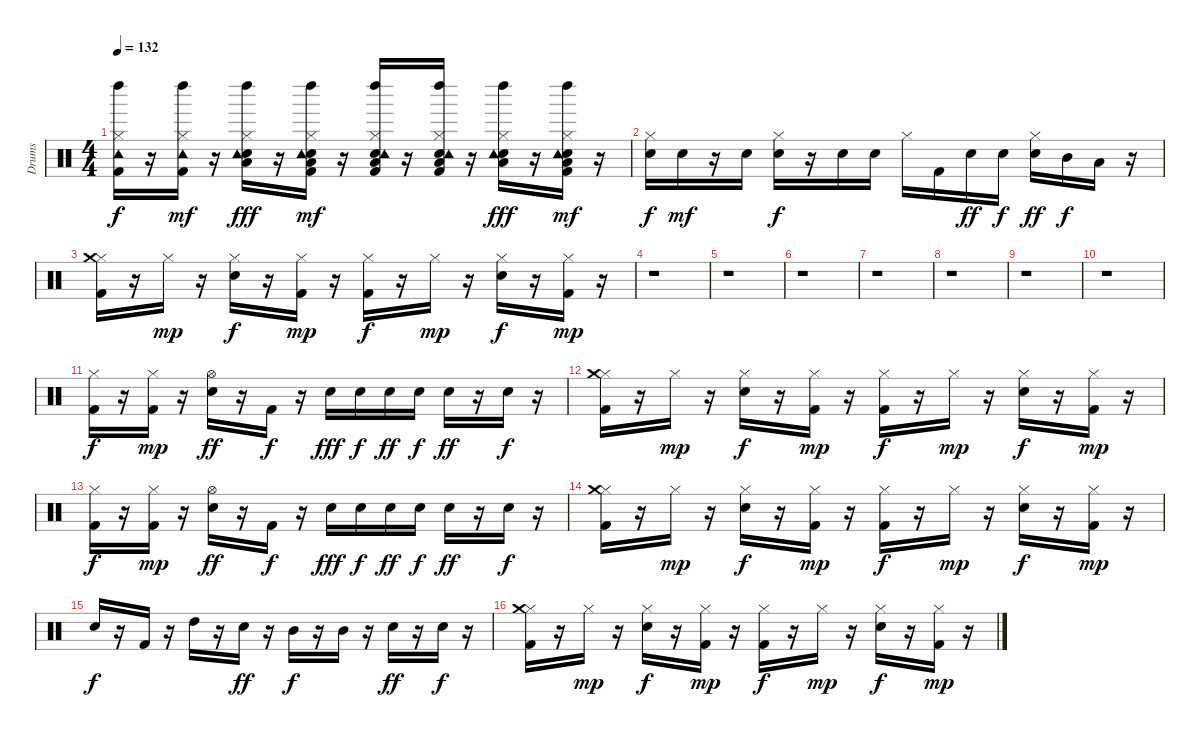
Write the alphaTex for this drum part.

\track ("Drums" "Drums") {instrument percussion}
\staff {score}
\articulation defaults
\ts (4 4)
\tempo 132
\clef neutral
\ks c
("Kick (hit) 2" "Hi-Hat (closed)" "Tambourine (hit)" "Left Maraca (hit)").16{dy f} r.16 ("Kick (hit) 2" "Hi-Hat (closed)" "Tambourine (hit)" "Left Maraca (hit)").16{dy mf} r.16 ("Snare (hit) 2" "Hi-Hat (closed)" "Low Floor Tom (hit)" "Tambourine (hit)" "Left Maraca (hit)").16{dy fff} r.16 ("Kick (hit) 2" "Snare (hit) 2" "Hi-Hat (closed)" "Low Floor Tom (hit)" "Tambourine (hit)" "Left Maraca (hit)").16{dy mf} r.16 ("Kick (hit) 2" "Snare (hit) 2" "Hi-Hat (closed)" "Low Floor Tom (hit)" "Tambourine (hit)" "Left Maraca (hit)").16 r.16 ("Kick (hit) 2" "Snare (hit) 2" "Hi-Hat (closed)" "Low Floor Tom (hit)" "Tambourine (hit)" "Left Maraca (hit)").16 r.16 ("Snare (hit) 2" "Hi-Hat (closed)" "Low Floor Tom (hit)" "Tambourine (hit)" "Left Maraca (hit)").16{dy fff} r.16 ("Kick (hit) 2" "Snare (hit) 2" "Hi-Hat (closed)" "Low Floor Tom (hit)" "Tambourine (hit)" "Left Maraca (hit)").16{dy mf} r.16 |
("Snare (hit) 2" "Hi-Hat (closed)").16{dy f} "Snare (hit) 2".16{dy mf} r.16 "Snare (hit) 2".16 ("Snare (hit) 2" "Hi-Hat (closed)").16{dy f} r.16 "Snare (hit) 2".16 "Snare (hit) 2".16 "Hi-Hat (closed)".16 "Kick (hit) 2".16 "Snare (hit) 2".16{dy ff} "Snare (hit) 2".16{dy f} ("Snare (hit) 2" "Hi-Hat (closed)").16{dy ff} "Mid Tom (hit)".16{dy f} "Low Floor Tom (hit)".16 r.16 |
("Kick (hit) 2" "Hi-Hat (closed)" "Crash medium (hit)").16 r.16 "Hi-Hat (closed)".16{dy mp} r.16 ("Snare (hit) 2" "Hi-Hat (closed)").16{dy f} r.16 ("Kick (hit) 2" "Hi-Hat (closed)").16{dy mp} r.16 ("Kick (hit) 2" "Hi-Hat (closed)").16{dy f} r.16 "Hi-Hat (closed)".16{dy mp} r.16 ("Snare (hit) 2" "Hi-Hat (closed)").16{dy f} r.16 ("Kick (hit) 2" "Hi-Hat (closed)").16{dy mp} r.16 |
r.1 |
r.1 |
r.1 |
r.1 |
r.1 |
r.1 |
r.1 |
("Kick (hit) 2" "Hi-Hat (closed)").16{dy f} r.16 ("Kick (hit) 2" "Hi-Hat (closed)").16{dy mp} r.16 ("Snare (hit) 2" "Hi-Hat (open)").16{dy ff} r.16 "Kick (hit) 2".16{dy f} r.16 "Snare (hit) 2".16{dy fff} "Snare (hit) 2".16{dy f} "Snare (hit) 2".16{dy ff} "Snare (hit) 2".16{dy f} "Snare (hit) 2".16{dy ff} r.16 "Snare (hit) 2".16{dy f} r.16 |
("Kick (hit) 2" "Hi-Hat (closed)" "Crash medium (hit)").16 r.16 "Hi-Hat (closed)".16{dy mp} r.16 ("Snare (hit) 2" "Hi-Hat (closed)").16{dy f} r.16 ("Kick (hit) 2" "Hi-Hat (closed)").16{dy mp} r.16 ("Kick (hit) 2" "Hi-Hat (closed)").16{dy f} r.16 "Hi-Hat (closed)".16{dy mp} r.16 ("Snare (hit) 2" "Hi-Hat (closed)").16{dy f} r.16 ("Kick (hit) 2" "Hi-Hat (closed)").16{dy mp} r.16 |
("Kick (hit) 2" "Hi-Hat (closed)").16{dy f} r.16 ("Kick (hit) 2" "Hi-Hat (closed)").16{dy mp} r.16 ("Snare (hit) 2" "Hi-Hat (open)").16{dy ff} r.16 "Kick (hit) 2".16{dy f} r.16 "Snare (hit) 2".16{dy fff} "Snare (hit) 2".16{dy f} "Snare (hit) 2".16{dy ff} "Snare (hit) 2".16{dy f} "Snare (hit) 2".16{dy ff} r.16 "Snare (hit) 2".16{dy f} r.16 |
("Kick (hit) 2" "Hi-Hat (closed)" "Crash medium (hit)").16 r.16 "Hi-Hat (closed)".16{dy mp} r.16 ("Snare (hit) 2" "Hi-Hat (closed)").16{dy f} r.16 ("Kick (hit) 2" "Hi-Hat (closed)").16{dy mp} r.16 ("Kick (hit) 2" "Hi-Hat (closed)").16{dy f} r.16 "Hi-Hat (closed)".16{dy mp} r.16 ("Snare (hit) 2" "Hi-Hat (closed)").16{dy f} r.16 ("Kick (hit) 2" "Hi-Hat (closed)").16{dy mp} r.16 |
"Snare (hit) 2".16{dy f} r.16 "Kick (hit) 2".16 r.16 "High Tom (hit)".16 r.16 "Snare (hit) 2".16{dy ff} r.16 "Mid Tom (hit)".16{dy f} r.16 "Mid Tom (hit)".16 r.16 "Snare (hit) 2".16{dy ff} r.16 "Snare (hit) 2".16{dy f} r.16 |
("Kick (hit) 2" "Hi-Hat (closed)" "Crash medium (hit)").16 r.16 "Hi-Hat (closed)".16{dy mp} r.16 ("Snare (hit) 2" "Hi-Hat (closed)").16{dy f} r.16 ("Kick (hit) 2" "Hi-Hat (closed)").16{dy mp} r.16 ("Kick (hit) 2" "Hi-Hat (closed)").16{dy f} r.16 "Hi-Hat (closed)".16{dy mp} r.16 ("Snare (hit) 2" "Hi-Hat (closed)").16{dy f} r.16 ("Kick (hit) 2" "Hi-Hat (closed)").16{dy mp} r.16
